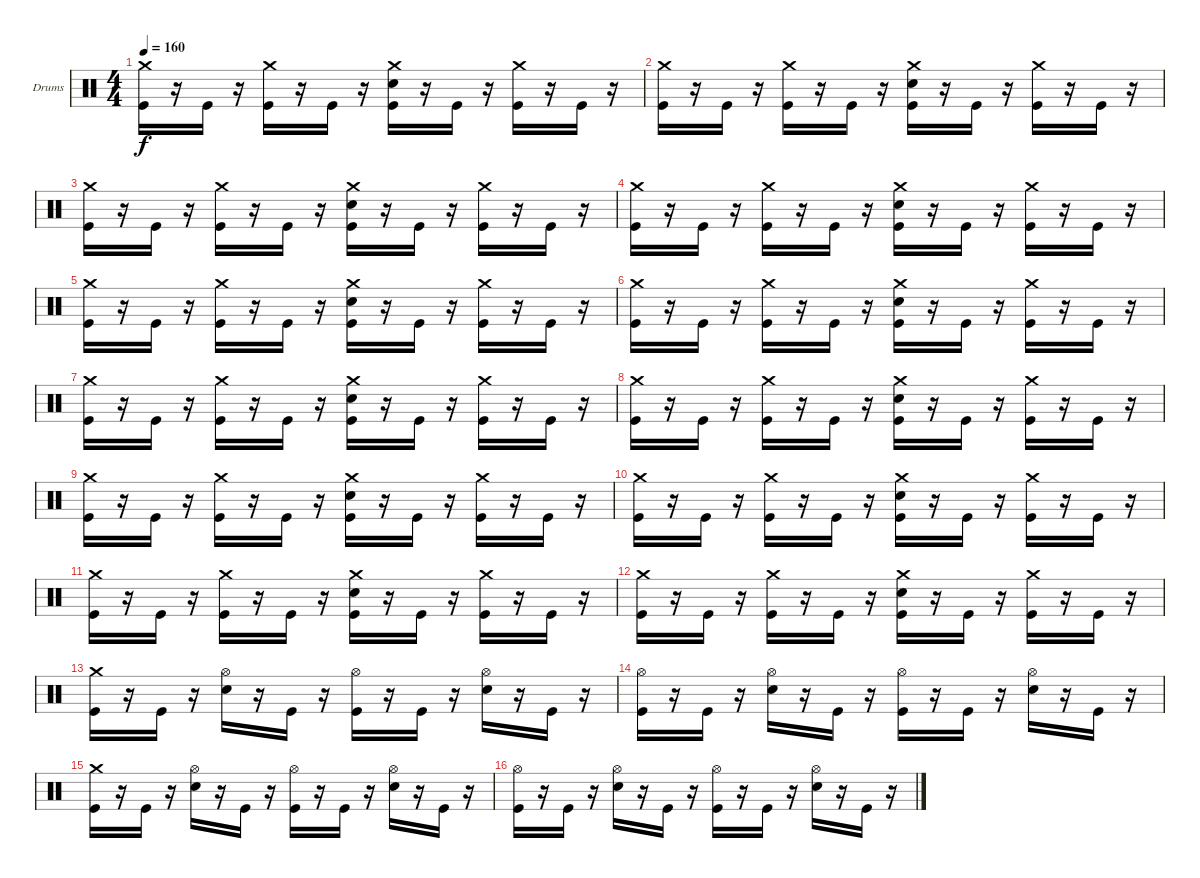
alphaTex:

\bracketExtendMode groupsimilarinstruments
\firstSystemTrackNameOrientation horizontal
\otherSystemsTrackNameOrientation horizontal
\track ("Drumkit" "Drums") {instrument percussion}
\staff {score}
\articulation defaults
\ts (4 4)
\tempo 160
\clef neutral
\ks c
("Crash medium (hit)" "Kick (hit)").16{dy f} r.16 "Kick (hit)".16 r.16 ("Crash medium (hit)" "Kick (hit)").16 r.16 "Kick (hit)".16 r.16 ("Crash medium (hit)" "Snare (hit) 2" "Kick (hit)").16 r.16 "Kick (hit)".16 r.16 ("Crash medium (hit)" "Kick (hit)").16 r.16 "Kick (hit)".16 r.16 |
("Crash medium (hit)" "Kick (hit)").16 r.16 "Kick (hit)".16 r.16 ("Crash medium (hit)" "Kick (hit)").16 r.16 "Kick (hit)".16 r.16 ("Crash medium (hit)" "Snare (hit) 2" "Kick (hit)").16 r.16 "Kick (hit)".16 r.16 ("Crash medium (hit)" "Kick (hit)").16 r.16 "Kick (hit)".16 r.16 |
("Crash medium (hit)" "Kick (hit)").16 r.16 "Kick (hit)".16 r.16 ("Crash medium (hit)" "Kick (hit)").16 r.16 "Kick (hit)".16 r.16 ("Crash medium (hit)" "Snare (hit) 2" "Kick (hit)").16 r.16 "Kick (hit)".16 r.16 ("Crash medium (hit)" "Kick (hit)").16 r.16 "Kick (hit)".16 r.16 |
("Crash medium (hit)" "Kick (hit)").16 r.16 "Kick (hit)".16 r.16 ("Crash medium (hit)" "Kick (hit)").16 r.16 "Kick (hit)".16 r.16 ("Crash medium (hit)" "Snare (hit) 2" "Kick (hit)").16 r.16 "Kick (hit)".16 r.16 ("Crash medium (hit)" "Kick (hit)").16 r.16 "Kick (hit)".16 r.16 |
("Crash medium (hit)" "Kick (hit)").16 r.16 "Kick (hit)".16 r.16 ("Crash medium (hit)" "Kick (hit)").16 r.16 "Kick (hit)".16 r.16 ("Crash medium (hit)" "Snare (hit) 2" "Kick (hit)").16 r.16 "Kick (hit)".16 r.16 ("Crash medium (hit)" "Kick (hit)").16 r.16 "Kick (hit)".16 r.16 |
("Crash medium (hit)" "Kick (hit)").16 r.16 "Kick (hit)".16 r.16 ("Crash medium (hit)" "Kick (hit)").16 r.16 "Kick (hit)".16 r.16 ("Crash medium (hit)" "Snare (hit) 2" "Kick (hit)").16 r.16 "Kick (hit)".16 r.16 ("Crash medium (hit)" "Kick (hit)").16 r.16 "Kick (hit)".16 r.16 |
("Crash medium (hit)" "Kick (hit)").16 r.16 "Kick (hit)".16 r.16 ("Crash medium (hit)" "Kick (hit)").16 r.16 "Kick (hit)".16 r.16 ("Crash medium (hit)" "Snare (hit) 2" "Kick (hit)").16 r.16 "Kick (hit)".16 r.16 ("Crash medium (hit)" "Kick (hit)").16 r.16 "Kick (hit)".16 r.16 |
("Crash medium (hit)" "Kick (hit)").16 r.16 "Kick (hit)".16 r.16 ("Crash medium (hit)" "Kick (hit)").16 r.16 "Kick (hit)".16 r.16 ("Crash medium (hit)" "Snare (hit) 2" "Kick (hit)").16 r.16 "Kick (hit)".16 r.16 ("Crash medium (hit)" "Kick (hit)").16 r.16 "Kick (hit)".16 r.16 |
("Crash medium (hit)" "Kick (hit)").16 r.16 "Kick (hit)".16 r.16 ("Crash medium (hit)" "Kick (hit)").16 r.16 "Kick (hit)".16 r.16 ("Crash medium (hit)" "Snare (hit) 2" "Kick (hit)").16 r.16 "Kick (hit)".16 r.16 ("Crash medium (hit)" "Kick (hit)").16 r.16 "Kick (hit)".16 r.16 |
("Crash medium (hit)" "Kick (hit)").16 r.16 "Kick (hit)".16 r.16 ("Crash medium (hit)" "Kick (hit)").16 r.16 "Kick (hit)".16 r.16 ("Crash medium (hit)" "Snare (hit) 2" "Kick (hit)").16 r.16 "Kick (hit)".16 r.16 ("Crash medium (hit)" "Kick (hit)").16 r.16 "Kick (hit)".16 r.16 |
("Crash medium (hit)" "Kick (hit)").16 r.16 "Kick (hit)".16 r.16 ("Crash medium (hit)" "Kick (hit)").16 r.16 "Kick (hit)".16 r.16 ("Crash medium (hit)" "Snare (hit) 2" "Kick (hit)").16 r.16 "Kick (hit)".16 r.16 ("Crash medium (hit)" "Kick (hit)").16 r.16 "Kick (hit)".16 r.16 |
("Crash medium (hit)" "Kick (hit)").16 r.16 "Kick (hit)".16 r.16 ("Crash medium (hit)" "Kick (hit)").16 r.16 "Kick (hit)".16 r.16 ("Crash medium (hit)" "Snare (hit) 2" "Kick (hit)").16 r.16 "Kick (hit)".16 r.16 ("Crash medium (hit)" "Kick (hit)").16 r.16 "Kick (hit)".16 r.16 |
("Crash medium (hit)" "Kick (hit)").16 r.16 "Kick (hit)".16 r.16 ("Hi-Hat (open)" "Snare (hit) 2").16 r.16 "Kick (hit)".16 r.16 ("Hi-Hat (open)" "Kick (hit)").16 r.16 "Kick (hit)".16 r.16 ("Hi-Hat (open)" "Snare (hit) 2").16 r.16 "Kick (hit)".16 r.16 |
("Hi-Hat (open)" "Kick (hit)").16 r.16 "Kick (hit)".16 r.16 ("Hi-Hat (open)" "Snare (hit) 2").16 r.16 "Kick (hit)".16 r.16 ("Hi-Hat (open)" "Kick (hit)").16 r.16 "Kick (hit)".16 r.16 ("Hi-Hat (open)" "Snare (hit) 2").16 r.16 "Kick (hit)".16 r.16 |
("Crash medium (hit)" "Kick (hit)").16 r.16 "Kick (hit)".16 r.16 ("Hi-Hat (open)" "Snare (hit) 2").16 r.16 "Kick (hit)".16 r.16 ("Hi-Hat (open)" "Kick (hit)").16 r.16 "Kick (hit)".16 r.16 ("Hi-Hat (open)" "Snare (hit) 2").16 r.16 "Kick (hit)".16 r.16 |
("Hi-Hat (open)" "Kick (hit)").16 r.16 "Kick (hit)".16 r.16 ("Hi-Hat (open)" "Snare (hit) 2").16 r.16 "Kick (hit)".16 r.16 ("Hi-Hat (open)" "Kick (hit)").16 r.16 "Kick (hit)".16 r.16 ("Hi-Hat (open)" "Snare (hit) 2").16 r.16 "Kick (hit)".16 r.16
